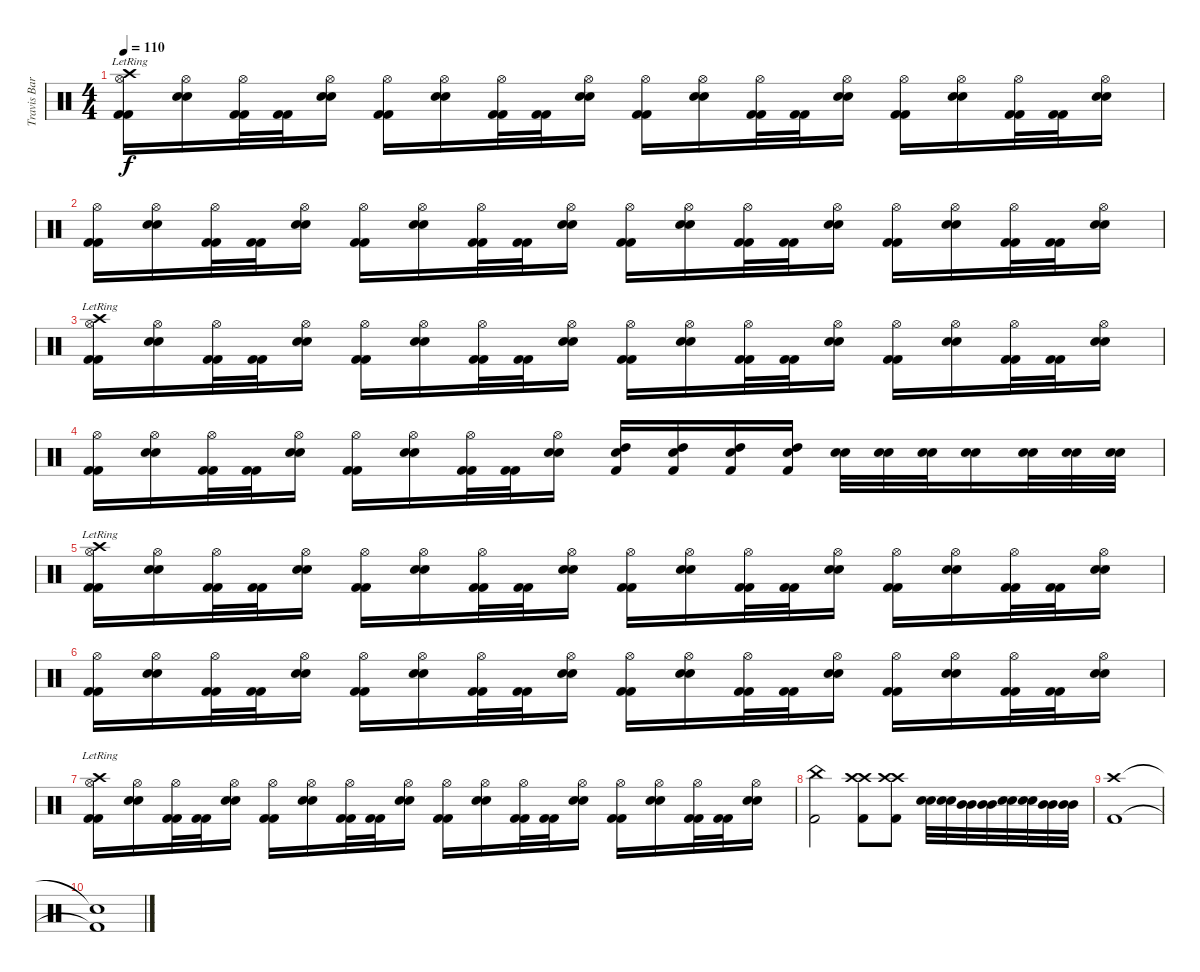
\track ("Travis Barker - Drums" "Travis Bar") {instrument percussion}
\staff {score}
\articulation defaults
\ts (4 4)
\tempo 110
\clef neutral
\ks c
("Kick (hit) 2" "Kick (hit) 2" "Hi-Hat (open)" "Crash high (hit)"{lr}).16{dy f} ("Snare (hit) 2" "Snare (hit) 2" "Hi-Hat (open)").16 ("Kick (hit) 2" "Kick (hit) 2" "Hi-Hat (open)").32 ("Kick (hit) 2" "Kick (hit) 2").32 ("Snare (hit) 2" "Snare (hit) 2" "Hi-Hat (open)").16 ("Kick (hit) 2" "Kick (hit) 2" "Hi-Hat (open)").16 ("Snare (hit) 2" "Snare (hit) 2" "Hi-Hat (open)").16 ("Kick (hit) 2" "Kick (hit) 2" "Hi-Hat (open)").32 ("Kick (hit) 2" "Kick (hit) 2").32 ("Snare (hit) 2" "Snare (hit) 2" "Hi-Hat (open)").16 ("Kick (hit) 2" "Kick (hit) 2" "Hi-Hat (open)").16 ("Snare (hit) 2" "Snare (hit) 2" "Hi-Hat (open)").16 ("Kick (hit) 2" "Kick (hit) 2" "Hi-Hat (open)").32 ("Kick (hit) 2" "Kick (hit) 2").32 ("Snare (hit) 2" "Snare (hit) 2" "Hi-Hat (open)").16 ("Kick (hit) 2" "Kick (hit) 2" "Hi-Hat (open)").16 ("Snare (hit) 2" "Snare (hit) 2" "Hi-Hat (open)").16 ("Kick (hit) 2" "Kick (hit) 2" "Hi-Hat (open)").32 ("Kick (hit) 2" "Kick (hit) 2").32 ("Snare (hit) 2" "Snare (hit) 2" "Hi-Hat (open)").16 |
("Kick (hit) 2" "Kick (hit) 2" "Hi-Hat (open)").16 ("Snare (hit) 2" "Snare (hit) 2" "Hi-Hat (open)").16 ("Kick (hit) 2" "Kick (hit) 2" "Hi-Hat (open)").32 ("Kick (hit) 2" "Kick (hit) 2").32 ("Snare (hit) 2" "Snare (hit) 2" "Hi-Hat (open)").16 ("Kick (hit) 2" "Kick (hit) 2" "Hi-Hat (open)").16 ("Snare (hit) 2" "Snare (hit) 2" "Hi-Hat (open)").16 ("Kick (hit) 2" "Kick (hit) 2" "Hi-Hat (open)").32 ("Kick (hit) 2" "Kick (hit) 2").32 ("Snare (hit) 2" "Snare (hit) 2" "Hi-Hat (open)").16 ("Kick (hit) 2" "Kick (hit) 2" "Hi-Hat (open)").16 ("Snare (hit) 2" "Snare (hit) 2" "Hi-Hat (open)").16 ("Kick (hit) 2" "Kick (hit) 2" "Hi-Hat (open)").32 ("Kick (hit) 2" "Kick (hit) 2").32 ("Snare (hit) 2" "Snare (hit) 2" "Hi-Hat (open)").16 ("Kick (hit) 2" "Kick (hit) 2" "Hi-Hat (open)").16 ("Snare (hit) 2" "Snare (hit) 2" "Hi-Hat (open)").16 ("Kick (hit) 2" "Kick (hit) 2" "Hi-Hat (open)").32 ("Kick (hit) 2" "Kick (hit) 2").32 ("Snare (hit) 2" "Snare (hit) 2" "Hi-Hat (open)").16 |
("Kick (hit) 2" "Kick (hit) 2" "Hi-Hat (open)" "Crash high (hit)"{lr}).16 ("Snare (hit) 2" "Snare (hit) 2" "Hi-Hat (open)").16 ("Kick (hit) 2" "Kick (hit) 2" "Hi-Hat (open)").32 ("Kick (hit) 2" "Kick (hit) 2").32 ("Snare (hit) 2" "Snare (hit) 2" "Hi-Hat (open)").16 ("Kick (hit) 2" "Kick (hit) 2" "Hi-Hat (open)").16 ("Snare (hit) 2" "Snare (hit) 2" "Hi-Hat (open)").16 ("Kick (hit) 2" "Kick (hit) 2" "Hi-Hat (open)").32 ("Kick (hit) 2" "Kick (hit) 2").32 ("Snare (hit) 2" "Snare (hit) 2" "Hi-Hat (open)").16 ("Kick (hit) 2" "Kick (hit) 2" "Hi-Hat (open)").16 ("Snare (hit) 2" "Snare (hit) 2" "Hi-Hat (open)").16 ("Kick (hit) 2" "Kick (hit) 2" "Hi-Hat (open)").32 ("Kick (hit) 2" "Kick (hit) 2").32 ("Snare (hit) 2" "Snare (hit) 2" "Hi-Hat (open)").16 ("Kick (hit) 2" "Kick (hit) 2" "Hi-Hat (open)").16 ("Snare (hit) 2" "Snare (hit) 2" "Hi-Hat (open)").16 ("Kick (hit) 2" "Kick (hit) 2" "Hi-Hat (open)").32 ("Kick (hit) 2" "Kick (hit) 2").32 ("Snare (hit) 2" "Snare (hit) 2" "Hi-Hat (open)").16 |
("Kick (hit) 2" "Kick (hit) 2" "Hi-Hat (open)").16 ("Snare (hit) 2" "Snare (hit) 2" "Hi-Hat (open)").16 ("Kick (hit) 2" "Kick (hit) 2" "Hi-Hat (open)").32 ("Kick (hit) 2" "Kick (hit) 2").32 ("Snare (hit) 2" "Snare (hit) 2" "Hi-Hat (open)").16 ("Kick (hit) 2" "Kick (hit) 2" "Hi-Hat (open)").16 ("Snare (hit) 2" "Snare (hit) 2" "Hi-Hat (open)").16 ("Kick (hit) 2" "Kick (hit) 2" "Hi-Hat (open)").32 ("Kick (hit) 2" "Kick (hit) 2").32 ("Snare (hit) 2" "Snare (hit) 2" "Hi-Hat (open)").16 ("Snare (hit) 2" "High Tom (hit)" "Kick (hit) 2").16 ("Snare (hit) 2" "High Tom (hit)" "Kick (hit) 2").16 ("Snare (hit) 2" "High Tom (hit)" "Kick (hit) 2").16 ("Snare (hit) 2" "High Tom (hit)" "Kick (hit) 2").16 ("Snare (hit) 2" "Snare (hit) 2").32 ("Snare (hit) 2" "Snare (hit) 2").32 ("Snare (hit) 2" "Snare (hit) 2").32 ("Snare (hit) 2" "Snare (hit) 2").16 ("Snare (hit) 2" "Snare (hit) 2").32 ("Snare (hit) 2" "Snare (hit) 2").32 ("Snare (hit) 2" "Snare (hit) 2").32 |
("Kick (hit) 2" "Kick (hit) 2" "Hi-Hat (open)" "Crash high (hit)"{lr}).16 ("Snare (hit) 2" "Snare (hit) 2" "Hi-Hat (open)").16 ("Kick (hit) 2" "Kick (hit) 2" "Hi-Hat (open)").32 ("Kick (hit) 2" "Kick (hit) 2").32 ("Snare (hit) 2" "Snare (hit) 2" "Hi-Hat (open)").16 ("Kick (hit) 2" "Kick (hit) 2" "Hi-Hat (open)").16 ("Snare (hit) 2" "Snare (hit) 2" "Hi-Hat (open)").16 ("Kick (hit) 2" "Kick (hit) 2" "Hi-Hat (open)").32 ("Kick (hit) 2" "Kick (hit) 2").32 ("Snare (hit) 2" "Snare (hit) 2" "Hi-Hat (open)").16 ("Kick (hit) 2" "Kick (hit) 2" "Hi-Hat (open)").16 ("Snare (hit) 2" "Snare (hit) 2" "Hi-Hat (open)").16 ("Kick (hit) 2" "Kick (hit) 2" "Hi-Hat (open)").32 ("Kick (hit) 2" "Kick (hit) 2").32 ("Snare (hit) 2" "Snare (hit) 2" "Hi-Hat (open)").16 ("Kick (hit) 2" "Kick (hit) 2" "Hi-Hat (open)").16 ("Snare (hit) 2" "Snare (hit) 2" "Hi-Hat (open)").16 ("Kick (hit) 2" "Kick (hit) 2" "Hi-Hat (open)").32 ("Kick (hit) 2" "Kick (hit) 2").32 ("Snare (hit) 2" "Snare (hit) 2" "Hi-Hat (open)").16 |
("Kick (hit) 2" "Kick (hit) 2" "Hi-Hat (open)").16 ("Snare (hit) 2" "Snare (hit) 2" "Hi-Hat (open)").16 ("Kick (hit) 2" "Kick (hit) 2" "Hi-Hat (open)").32 ("Kick (hit) 2" "Kick (hit) 2").32 ("Snare (hit) 2" "Snare (hit) 2" "Hi-Hat (open)").16 ("Kick (hit) 2" "Kick (hit) 2" "Hi-Hat (open)").16 ("Snare (hit) 2" "Snare (hit) 2" "Hi-Hat (open)").16 ("Kick (hit) 2" "Kick (hit) 2" "Hi-Hat (open)").32 ("Kick (hit) 2" "Kick (hit) 2").32 ("Snare (hit) 2" "Snare (hit) 2" "Hi-Hat (open)").16 ("Kick (hit) 2" "Kick (hit) 2" "Hi-Hat (open)").16 ("Snare (hit) 2" "Snare (hit) 2" "Hi-Hat (open)").16 ("Kick (hit) 2" "Kick (hit) 2" "Hi-Hat (open)").32 ("Kick (hit) 2" "Kick (hit) 2").32 ("Snare (hit) 2" "Snare (hit) 2" "Hi-Hat (open)").16 ("Kick (hit) 2" "Kick (hit) 2" "Hi-Hat (open)").16 ("Snare (hit) 2" "Snare (hit) 2" "Hi-Hat (open)").16 ("Kick (hit) 2" "Kick (hit) 2" "Hi-Hat (open)").32 ("Kick (hit) 2" "Kick (hit) 2").32 ("Snare (hit) 2" "Snare (hit) 2" "Hi-Hat (open)").16 |
("Kick (hit) 2" "Kick (hit) 2" "Hi-Hat (open)" "Crash high (hit)"{lr}).16 ("Snare (hit) 2" "Snare (hit) 2" "Hi-Hat (open)").16 ("Kick (hit) 2" "Kick (hit) 2" "Hi-Hat (open)").32 ("Kick (hit) 2" "Kick (hit) 2").32 ("Snare (hit) 2" "Snare (hit) 2" "Hi-Hat (open)").16 ("Kick (hit) 2" "Kick (hit) 2" "Hi-Hat (open)").16 ("Snare (hit) 2" "Snare (hit) 2" "Hi-Hat (open)").16 ("Kick (hit) 2" "Kick (hit) 2" "Hi-Hat (open)").32 ("Kick (hit) 2" "Kick (hit) 2").32 ("Snare (hit) 2" "Snare (hit) 2" "Hi-Hat (open)").16 ("Kick (hit) 2" "Kick (hit) 2" "Hi-Hat (open)").16 ("Snare (hit) 2" "Snare (hit) 2" "Hi-Hat (open)").16 ("Kick (hit) 2" "Kick (hit) 2" "Hi-Hat (open)").32 ("Kick (hit) 2" "Kick (hit) 2").32 ("Snare (hit) 2" "Snare (hit) 2" "Hi-Hat (open)").16 ("Kick (hit) 2" "Kick (hit) 2" "Hi-Hat (open)").16 ("Snare (hit) 2" "Snare (hit) 2" "Hi-Hat (open)").16 ("Kick (hit) 2" "Kick (hit) 2" "Hi-Hat (open)").32 ("Kick (hit) 2" "Kick (hit) 2").32 ("Snare (hit) 2" "Snare (hit) 2" "Hi-Hat (open)").16 |
("China (hit)" "Kick (hit) 2").2 ("Crash high (hit)" "Crash high (hit)" "Kick (hit) 2").8 ("Crash high (hit)" "Crash high (hit)" "Kick (hit) 2").8 ("Snare (hit) 2" "Snare (hit) 2").32 ("Snare (hit) 2" "Snare (hit) 2").32 ("Mid Tom (hit)" "Mid Tom (hit)").32 ("Mid Tom (hit)" "Mid Tom (hit)").32 ("Snare (hit) 2" "Snare (hit) 2").32 ("Snare (hit) 2" "Snare (hit) 2").32 ("Mid Tom (hit)" "Mid Tom (hit)").32 ("Mid Tom (hit)" "Mid Tom (hit)").32 |
("Crash high (hit)" "Kick (hit) 2").1 |
("Snare (hit)"{t} "Kick (hit) 2"{t}).1
